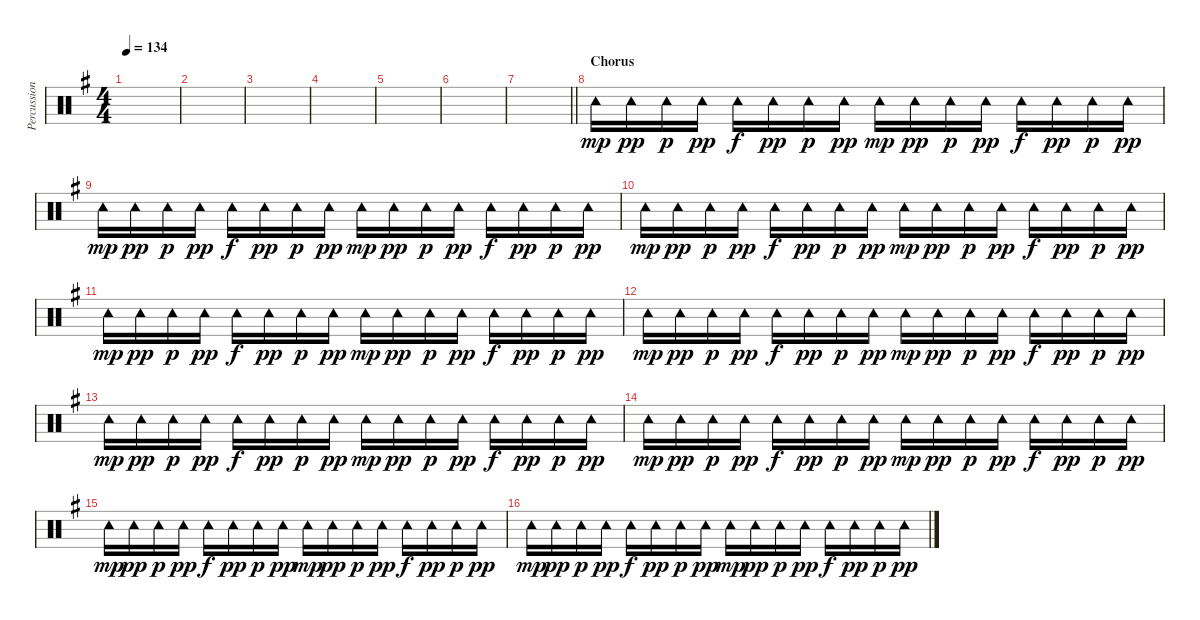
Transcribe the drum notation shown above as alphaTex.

\track ("Percussion" "Percussion") {instrument percussion}
\staff {score}
\articulation defaults
\ts (4 4)
\tempo 134
\clef neutral
\ks eminor
|
|
|
|
|
|
\barLineRight lightlight
|
\section ("" "Chorus")
"Tambourine (hit)".16{dy mp} "Tambourine (hit)".16{dy pp} "Tambourine (hit)".16{dy p} "Tambourine (hit)".16{dy pp} "Tambourine (hit)".16{dy f} "Tambourine (hit)".16{dy pp} "Tambourine (hit)".16{dy p} "Tambourine (hit)".16{dy pp} "Tambourine (hit)".16{dy mp} "Tambourine (hit)".16{dy pp} "Tambourine (hit)".16{dy p} "Tambourine (hit)".16{dy pp} "Tambourine (hit)".16{dy f} "Tambourine (hit)".16{dy pp} "Tambourine (hit)".16{dy p} "Tambourine (hit)".16{dy pp} |
"Tambourine (hit)".16{dy mp} "Tambourine (hit)".16{dy pp} "Tambourine (hit)".16{dy p} "Tambourine (hit)".16{dy pp} "Tambourine (hit)".16{dy f} "Tambourine (hit)".16{dy pp} "Tambourine (hit)".16{dy p} "Tambourine (hit)".16{dy pp} "Tambourine (hit)".16{dy mp} "Tambourine (hit)".16{dy pp} "Tambourine (hit)".16{dy p} "Tambourine (hit)".16{dy pp} "Tambourine (hit)".16{dy f} "Tambourine (hit)".16{dy pp} "Tambourine (hit)".16{dy p} "Tambourine (hit)".16{dy pp} |
"Tambourine (hit)".16{dy mp} "Tambourine (hit)".16{dy pp} "Tambourine (hit)".16{dy p} "Tambourine (hit)".16{dy pp} "Tambourine (hit)".16{dy f} "Tambourine (hit)".16{dy pp} "Tambourine (hit)".16{dy p} "Tambourine (hit)".16{dy pp} "Tambourine (hit)".16{dy mp} "Tambourine (hit)".16{dy pp} "Tambourine (hit)".16{dy p} "Tambourine (hit)".16{dy pp} "Tambourine (hit)".16{dy f} "Tambourine (hit)".16{dy pp} "Tambourine (hit)".16{dy p} "Tambourine (hit)".16{dy pp} |
"Tambourine (hit)".16{dy mp} "Tambourine (hit)".16{dy pp} "Tambourine (hit)".16{dy p} "Tambourine (hit)".16{dy pp} "Tambourine (hit)".16{dy f} "Tambourine (hit)".16{dy pp} "Tambourine (hit)".16{dy p} "Tambourine (hit)".16{dy pp} "Tambourine (hit)".16{dy mp} "Tambourine (hit)".16{dy pp} "Tambourine (hit)".16{dy p} "Tambourine (hit)".16{dy pp} "Tambourine (hit)".16{dy f} "Tambourine (hit)".16{dy pp} "Tambourine (hit)".16{dy p} "Tambourine (hit)".16{dy pp} |
"Tambourine (hit)".16{dy mp} "Tambourine (hit)".16{dy pp} "Tambourine (hit)".16{dy p} "Tambourine (hit)".16{dy pp} "Tambourine (hit)".16{dy f} "Tambourine (hit)".16{dy pp} "Tambourine (hit)".16{dy p} "Tambourine (hit)".16{dy pp} "Tambourine (hit)".16{dy mp} "Tambourine (hit)".16{dy pp} "Tambourine (hit)".16{dy p} "Tambourine (hit)".16{dy pp} "Tambourine (hit)".16{dy f} "Tambourine (hit)".16{dy pp} "Tambourine (hit)".16{dy p} "Tambourine (hit)".16{dy pp} |
"Tambourine (hit)".16{dy mp} "Tambourine (hit)".16{dy pp} "Tambourine (hit)".16{dy p} "Tambourine (hit)".16{dy pp} "Tambourine (hit)".16{dy f} "Tambourine (hit)".16{dy pp} "Tambourine (hit)".16{dy p} "Tambourine (hit)".16{dy pp} "Tambourine (hit)".16{dy mp} "Tambourine (hit)".16{dy pp} "Tambourine (hit)".16{dy p} "Tambourine (hit)".16{dy pp} "Tambourine (hit)".16{dy f} "Tambourine (hit)".16{dy pp} "Tambourine (hit)".16{dy p} "Tambourine (hit)".16{dy pp} |
"Tambourine (hit)".16{dy mp} "Tambourine (hit)".16{dy pp} "Tambourine (hit)".16{dy p} "Tambourine (hit)".16{dy pp} "Tambourine (hit)".16{dy f} "Tambourine (hit)".16{dy pp} "Tambourine (hit)".16{dy p} "Tambourine (hit)".16{dy pp} "Tambourine (hit)".16{dy mp} "Tambourine (hit)".16{dy pp} "Tambourine (hit)".16{dy p} "Tambourine (hit)".16{dy pp} "Tambourine (hit)".16{dy f} "Tambourine (hit)".16{dy pp} "Tambourine (hit)".16{dy p} "Tambourine (hit)".16{dy pp} |
"Tambourine (hit)".16{dy mp} "Tambourine (hit)".16{dy pp} "Tambourine (hit)".16{dy p} "Tambourine (hit)".16{dy pp} "Tambourine (hit)".16{dy f} "Tambourine (hit)".16{dy pp} "Tambourine (hit)".16{dy p} "Tambourine (hit)".16{dy pp} "Tambourine (hit)".16{dy mp} "Tambourine (hit)".16{dy pp} "Tambourine (hit)".16{dy p} "Tambourine (hit)".16{dy pp} "Tambourine (hit)".16{dy f} "Tambourine (hit)".16{dy pp} "Tambourine (hit)".16{dy p} "Tambourine (hit)".16{dy pp} |
"Tambourine (hit)".16{dy mp} "Tambourine (hit)".16{dy pp} "Tambourine (hit)".16{dy p} "Tambourine (hit)".16{dy pp} "Tambourine (hit)".16{dy f} "Tambourine (hit)".16{dy pp} "Tambourine (hit)".16{dy p} "Tambourine (hit)".16{dy pp} "Tambourine (hit)".16{dy mp} "Tambourine (hit)".16{dy pp} "Tambourine (hit)".16{dy p} "Tambourine (hit)".16{dy pp} "Tambourine (hit)".16{dy f} "Tambourine (hit)".16{dy pp} "Tambourine (hit)".16{dy p} "Tambourine (hit)".16{dy pp}
